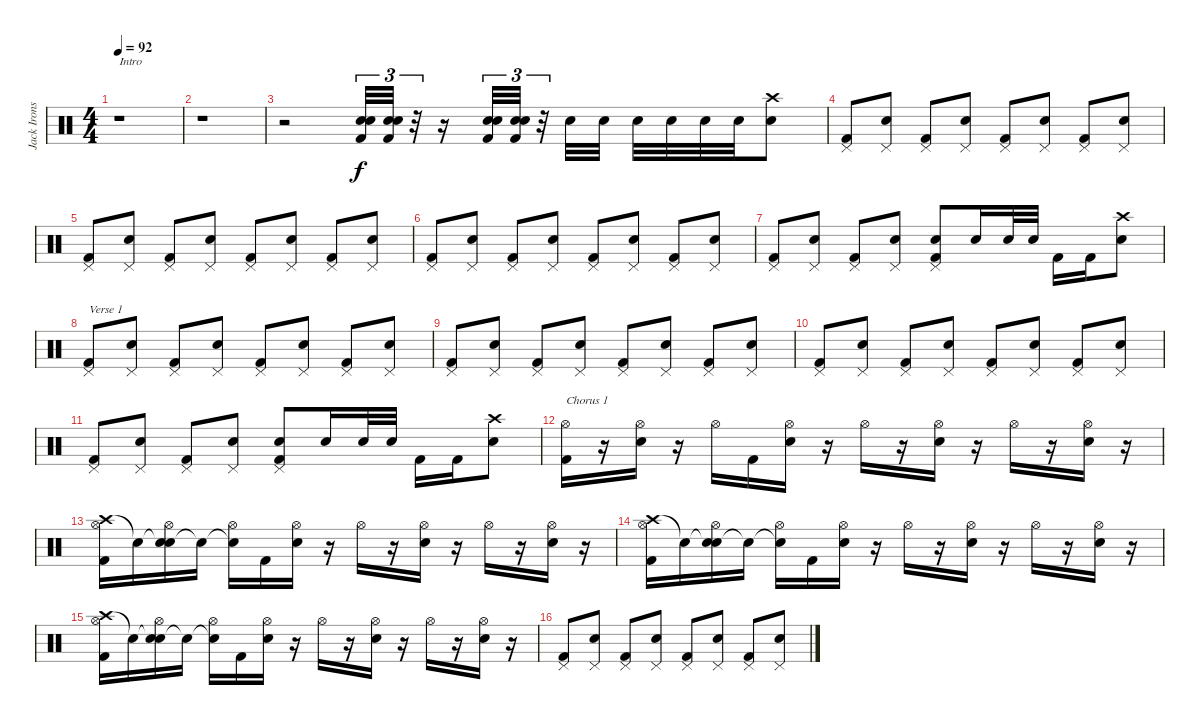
\track ("Jack Irons" "Jack Irons") {instrument percussion}
\staff {score}
\articulation defaults
\ts (4 4)
\tempo 92
\clef neutral
\ks c
r.1{txt "Intro" dy f} |
r.1 |
r.2 ("Snare (hit) 2" "Snare (hit) 2" "Kick (hit) 2").32{tu (3 2)} ("Snare (hit) 2" "Snare (hit) 2" "Kick (hit) 2").32{tu (3 2)} r.32{tu (3 2)} r.16 ("Snare (hit) 2" "Snare (hit) 2" "Kick (hit) 2").32{tu (3 2)} ("Snare (hit) 2" "Snare (hit) 2" "Kick (hit) 2").32{tu (3 2)} r.32{tu (3 2)} "Snare (hit) 2".32 "Snare (hit) 2".32 "Snare (hit) 2".32 "Snare (hit) 2".32 "Snare (hit) 2".32 "Snare (hit) 2".32 ("Crash high (hit)" "Snare (hit) 2").8 |
("Pedal Hi-Hat (hit)" "Kick (hit) 2").8 ("Pedal Hi-Hat (hit)" "Snare (hit) 2").8 ("Pedal Hi-Hat (hit)" "Kick (hit) 2").8 ("Pedal Hi-Hat (hit)" "Snare (hit) 2").8 ("Pedal Hi-Hat (hit)" "Kick (hit) 2").8 ("Pedal Hi-Hat (hit)" "Snare (hit) 2").8 ("Pedal Hi-Hat (hit)" "Kick (hit) 2").8 ("Pedal Hi-Hat (hit)" "Snare (hit) 2").8 |
("Pedal Hi-Hat (hit)" "Kick (hit) 2").8 ("Pedal Hi-Hat (hit)" "Snare (hit) 2").8 ("Pedal Hi-Hat (hit)" "Kick (hit) 2").8 ("Pedal Hi-Hat (hit)" "Snare (hit) 2").8 ("Pedal Hi-Hat (hit)" "Kick (hit) 2").8 ("Pedal Hi-Hat (hit)" "Snare (hit) 2").8 ("Pedal Hi-Hat (hit)" "Kick (hit) 2").8 ("Pedal Hi-Hat (hit)" "Snare (hit) 2").8 |
("Pedal Hi-Hat (hit)" "Kick (hit) 2").8 ("Pedal Hi-Hat (hit)" "Snare (hit) 2").8 ("Pedal Hi-Hat (hit)" "Kick (hit) 2").8 ("Pedal Hi-Hat (hit)" "Snare (hit) 2").8 ("Pedal Hi-Hat (hit)" "Kick (hit) 2").8 ("Pedal Hi-Hat (hit)" "Snare (hit) 2").8 ("Pedal Hi-Hat (hit)" "Kick (hit) 2").8 ("Pedal Hi-Hat (hit)" "Snare (hit) 2").8 |
("Pedal Hi-Hat (hit)" "Kick (hit) 2").8 ("Pedal Hi-Hat (hit)" "Snare (hit) 2").8 ("Pedal Hi-Hat (hit)" "Kick (hit) 2").8 ("Pedal Hi-Hat (hit)" "Snare (hit) 2").8 ("Pedal Hi-Hat (hit)" "Snare (hit) 2" "Kick (hit) 2").8 "Snare (hit) 2".16 "Snare (hit) 2".32 "Snare (hit) 2".32 "Kick (hit) 2".16 "Kick (hit) 2".16 ("Crash high (hit)" "Snare (hit) 2").8 |
("Pedal Hi-Hat (hit)" "Kick (hit) 2").8{txt "Verse 1"} ("Pedal Hi-Hat (hit)" "Snare (hit) 2").8 ("Pedal Hi-Hat (hit)" "Kick (hit) 2").8 ("Pedal Hi-Hat (hit)" "Snare (hit) 2").8 ("Pedal Hi-Hat (hit)" "Kick (hit) 2").8 ("Pedal Hi-Hat (hit)" "Snare (hit) 2").8 ("Pedal Hi-Hat (hit)" "Kick (hit) 2").8 ("Pedal Hi-Hat (hit)" "Snare (hit) 2").8 |
("Pedal Hi-Hat (hit)" "Kick (hit) 2").8 ("Pedal Hi-Hat (hit)" "Snare (hit) 2").8 ("Pedal Hi-Hat (hit)" "Kick (hit) 2").8 ("Pedal Hi-Hat (hit)" "Snare (hit) 2").8 ("Pedal Hi-Hat (hit)" "Kick (hit) 2").8 ("Pedal Hi-Hat (hit)" "Snare (hit) 2").8 ("Pedal Hi-Hat (hit)" "Kick (hit) 2").8 ("Pedal Hi-Hat (hit)" "Snare (hit) 2").8 |
("Pedal Hi-Hat (hit)" "Kick (hit) 2").8 ("Pedal Hi-Hat (hit)" "Snare (hit) 2").8 ("Pedal Hi-Hat (hit)" "Kick (hit) 2").8 ("Pedal Hi-Hat (hit)" "Snare (hit) 2").8 ("Pedal Hi-Hat (hit)" "Kick (hit) 2").8 ("Pedal Hi-Hat (hit)" "Snare (hit) 2").8 ("Pedal Hi-Hat (hit)" "Kick (hit) 2").8 ("Pedal Hi-Hat (hit)" "Snare (hit) 2").8 |
("Pedal Hi-Hat (hit)" "Kick (hit) 2").8 ("Pedal Hi-Hat (hit)" "Snare (hit) 2").8 ("Pedal Hi-Hat (hit)" "Kick (hit) 2").8 ("Pedal Hi-Hat (hit)" "Snare (hit) 2").8 ("Pedal Hi-Hat (hit)" "Snare (hit) 2" "Kick (hit) 2").8 "Snare (hit) 2".16 "Snare (hit) 2".32 "Snare (hit) 2".32 "Kick (hit) 2".16 "Kick (hit) 2".16 ("Crash high (hit)" "Snare (hit) 2").8 |
("Hi-Hat (open)" "Kick (hit) 2").16{txt "Chorus 1"} r.16 ("Hi-Hat (open)" "Snare (hit) 2").16 r.16 "Hi-Hat (open)".16 "Kick (hit) 2".16 ("Hi-Hat (open)" "Snare (hit) 2").16 r.16 "Hi-Hat (open)".16 r.16 ("Hi-Hat (open)" "Snare (hit) 2").16 r.16 "Hi-Hat (open)".16 r.16 ("Hi-Hat (open)" "Snare (hit) 2").16 r.16 |
("Crash high (hit)" "Hi-Hat (open)" "Kick (hit) 2").16 "Snare (hit)"{t}.16 ("Snare (hit)"{t} "Hi-Hat (open)" "Snare (hit) 2").16 "Snare (hit)"{t}.16 ("Snare (hit)"{t} "Hi-Hat (open)").16 "Kick (hit) 2".16 ("Hi-Hat (open)" "Snare (hit) 2").16 r.16 "Hi-Hat (open)".16 r.16 ("Hi-Hat (open)" "Snare (hit) 2").16 r.16 "Hi-Hat (open)".16 r.16 ("Hi-Hat (open)" "Snare (hit) 2").16 r.16 |
("Crash high (hit)" "Hi-Hat (open)" "Kick (hit) 2").16 "Snare (hit)"{t}.16 ("Snare (hit)"{t} "Hi-Hat (open)" "Snare (hit) 2").16 "Snare (hit)"{t}.16 ("Snare (hit)"{t} "Hi-Hat (open)").16 "Kick (hit) 2".16 ("Hi-Hat (open)" "Snare (hit) 2").16 r.16 "Hi-Hat (open)".16 r.16 ("Hi-Hat (open)" "Snare (hit) 2").16 r.16 "Hi-Hat (open)".16 r.16 ("Hi-Hat (open)" "Snare (hit) 2").16 r.16 |
("Crash high (hit)" "Hi-Hat (open)" "Kick (hit) 2").16 "Snare (hit)"{t}.16 ("Snare (hit)"{t} "Hi-Hat (open)" "Snare (hit) 2").16 "Snare (hit)"{t}.16 ("Snare (hit)"{t} "Hi-Hat (open)").16 "Kick (hit) 2".16 ("Hi-Hat (open)" "Snare (hit) 2").16 r.16 "Hi-Hat (open)".16 r.16 ("Hi-Hat (open)" "Snare (hit) 2").16 r.16 "Hi-Hat (open)".16 r.16 ("Hi-Hat (open)" "Snare (hit) 2").16 r.16 |
("Pedal Hi-Hat (hit)" "Kick (hit) 2").8 ("Pedal Hi-Hat (hit)" "Snare (hit) 2").8 ("Pedal Hi-Hat (hit)" "Kick (hit) 2").8 ("Pedal Hi-Hat (hit)" "Snare (hit) 2").8 ("Pedal Hi-Hat (hit)" "Kick (hit) 2").8 ("Pedal Hi-Hat (hit)" "Snare (hit) 2").8 ("Pedal Hi-Hat (hit)" "Kick (hit) 2").8 ("Pedal Hi-Hat (hit)" "Snare (hit) 2").8
